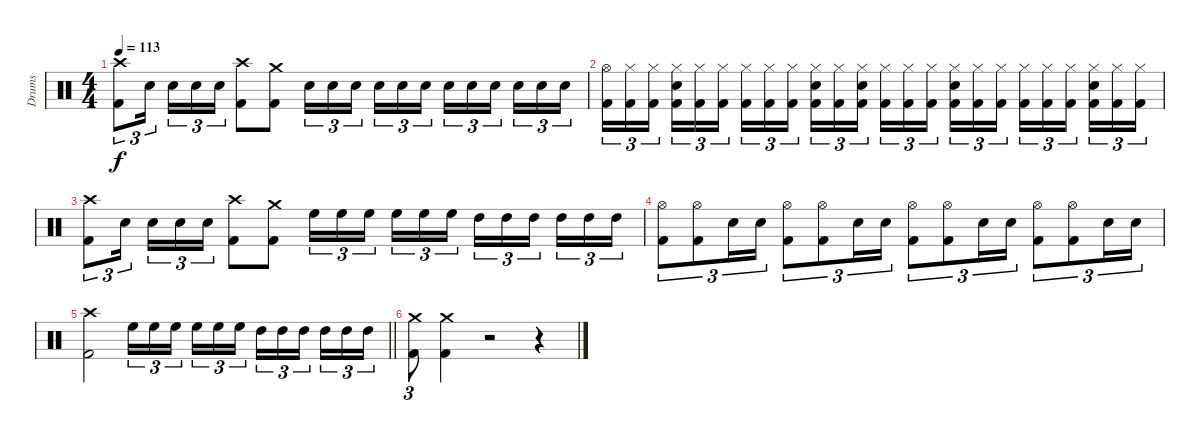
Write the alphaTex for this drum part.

\track ("Drums" "Drums") {instrument percussion}
\staff {score}
\articulation defaults
\ts (4 4)
\tempo 113
\clef neutral
\ks c
("Crash high (hit)" "Kick (hit) 2").8{tu (3 2) dy f} "Snare (hit) 2".16{tu (3 2) beam splitsecondary} "Snare (hit) 2".16{tu (3 2)} "Snare (hit) 2".16{tu (3 2)} "Snare (hit) 2".16{tu (3 2)} ("Crash high (hit)" "Kick (hit) 2").8 ("Crash medium (hit)" "Kick (hit) 2").8 "Snare (hit) 2".16{tu (3 2)} "Snare (hit) 2".16{tu (3 2)} "Snare (hit) 2".16{tu (3 2) beam splitsecondary} "Snare (hit) 2".16{tu (3 2)} "Snare (hit) 2".16{tu (3 2)} "Snare (hit) 2".16{tu (3 2)} "Snare (hit) 2".16{tu (3 2)} "Snare (hit) 2".16{tu (3 2)} "Snare (hit) 2".16{tu (3 2) beam splitsecondary} "Snare (hit) 2".16{tu (3 2)} "Snare (hit) 2".16{tu (3 2)} "Snare (hit) 2".16{tu (3 2)} |
("Hi-Hat (open)" "Kick (hit) 2").16{tu (3 2)} ("Hi-Hat (closed)" "Kick (hit) 2").16{tu (3 2)} ("Hi-Hat (closed)" "Kick (hit) 2").16{tu (3 2) beam splitsecondary} ("Snare (hit) 2" "Hi-Hat (closed)" "Kick (hit) 2").16{tu (3 2)} ("Hi-Hat (closed)" "Kick (hit) 2").16{tu (3 2)} ("Hi-Hat (closed)" "Kick (hit) 2").16{tu (3 2)} ("Hi-Hat (closed)" "Kick (hit) 2").16{tu (3 2)} ("Hi-Hat (closed)" "Kick (hit) 2").16{tu (3 2)} ("Hi-Hat (closed)" "Kick (hit) 2").16{tu (3 2) beam splitsecondary} ("Snare (hit) 2" "Hi-Hat (closed)" "Kick (hit) 2").16{tu (3 2)} ("Hi-Hat (closed)" "Kick (hit) 2").16{tu (3 2)} ("Snare (hit) 2" "Hi-Hat (closed)" "Kick (hit) 2").16{tu (3 2)} ("Hi-Hat (closed)" "Kick (hit) 2").16{tu (3 2)} ("Hi-Hat (closed)" "Kick (hit) 2").16{tu (3 2)} ("Hi-Hat (closed)" "Kick (hit) 2").16{tu (3 2) beam splitsecondary} ("Snare (hit) 2" "Hi-Hat (closed)" "Kick (hit) 2").16{tu (3 2)} ("Hi-Hat (closed)" "Kick (hit) 2").16{tu (3 2)} ("Hi-Hat (closed)" "Kick (hit) 2").16{tu (3 2)} ("Hi-Hat (closed)" "Kick (hit) 2").16{tu (3 2)} ("Hi-Hat (closed)" "Kick (hit) 2").16{tu (3 2)} ("Hi-Hat (closed)" "Kick (hit) 2").16{tu (3 2) beam splitsecondary} ("Snare (hit) 2" "Hi-Hat (closed)" "Kick (hit) 2").16{tu (3 2)} ("Hi-Hat (closed)" "Kick (hit) 2").16{tu (3 2)} ("Hi-Hat (closed)" "Kick (hit) 2").16{tu (3 2)} |
("Crash high (hit)" "Kick (hit) 2").8{tu (3 2)} "Snare (hit) 2".16{tu (3 2) beam splitsecondary} "Snare (hit) 2".16{tu (3 2)} "Snare (hit) 2".16{tu (3 2)} "Snare (hit) 2".16{tu (3 2)} ("Crash high (hit)" "Kick (hit) 2").8 ("Crash medium (hit)" "Kick (hit) 2").8 "High Floor Tom (hit)".16{tu (3 2)} "High Floor Tom (hit)".16{tu (3 2)} "High Floor Tom (hit)".16{tu (3 2) beam splitsecondary} "High Floor Tom (hit)".16{tu (3 2)} "High Floor Tom (hit)".16{tu (3 2)} "High Floor Tom (hit)".16{tu (3 2)} "High Tom (hit)".16{tu (3 2)} "High Tom (hit)".16{tu (3 2)} "High Tom (hit)".16{tu (3 2) beam splitsecondary} "High Tom (hit)".16{tu (3 2)} "High Tom (hit)".16{tu (3 2)} "High Tom (hit)".16{tu (3 2)} |
("Hi-Hat (open)" "Kick (hit) 2").8{tu (3 2)} ("Hi-Hat (open)" "Kick (hit) 2").8{tu (3 2)} "Snare (hit) 2".16{tu (3 2)} "Snare (hit) 2".16{tu (3 2)} ("Hi-Hat (open)" "Kick (hit) 2").8{tu (3 2)} ("Hi-Hat (open)" "Kick (hit) 2").8{tu (3 2)} "Snare (hit) 2".16{tu (3 2)} "Snare (hit) 2".16{tu (3 2)} ("Hi-Hat (open)" "Kick (hit) 2").8{tu (3 2)} ("Hi-Hat (open)" "Kick (hit) 2").8{tu (3 2)} "Snare (hit) 2".16{tu (3 2)} "Snare (hit) 2".16{tu (3 2)} ("Hi-Hat (open)" "Kick (hit) 2").8{tu (3 2)} ("Hi-Hat (open)" "Kick (hit) 2").8{tu (3 2)} "Snare (hit) 2".16{tu (3 2)} "Snare (hit) 2".16{tu (3 2)} |
\barLineRight lightlight
("Crash high (hit)" "Kick (hit) 2").2 "High Floor Tom (hit)".16{tu (3 2)} "High Floor Tom (hit)".16{tu (3 2)} "High Floor Tom (hit)".16{tu (3 2) beam splitsecondary} "High Floor Tom (hit)".16{tu (3 2)} "High Floor Tom (hit)".16{tu (3 2)} "High Floor Tom (hit)".16{tu (3 2)} "High Tom (hit)".16{tu (3 2)} "High Tom (hit)".16{tu (3 2)} "High Tom (hit)".16{tu (3 2) beam splitsecondary} "High Tom (hit)".16{tu (3 2)} "High Tom (hit)".16{tu (3 2)} "High Tom (hit)".16{tu (3 2)} |
("Crash medium (hit)" "Kick (hit) 2").8{tu (3 2)} ("Crash medium (hit)" "Kick (hit) 2").4 r.2 r.4{tu (3 2)}
